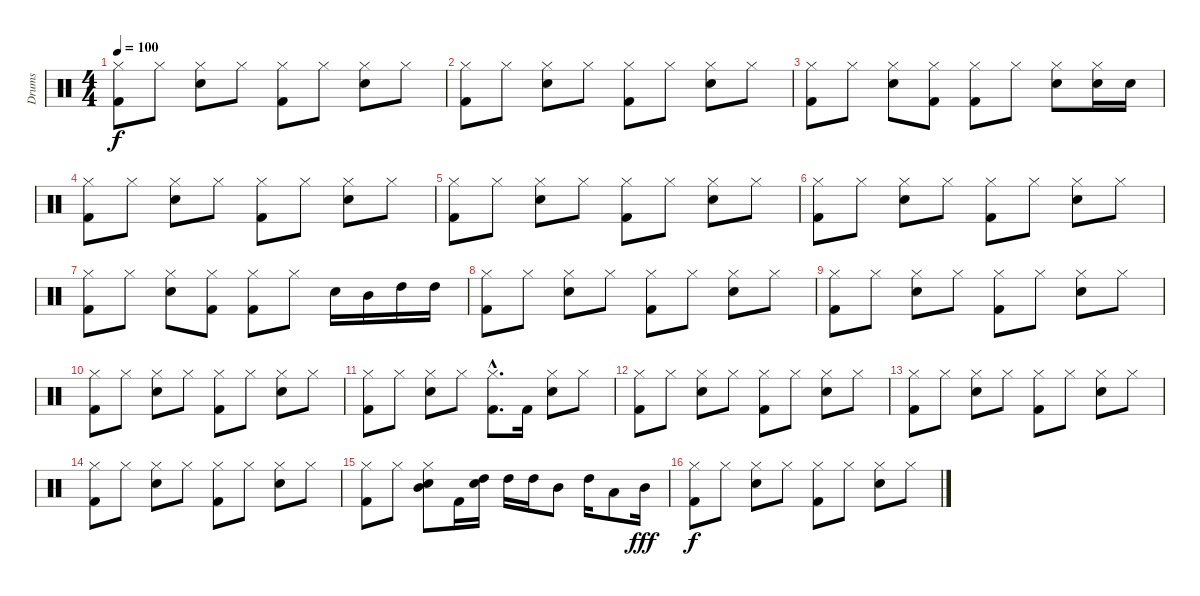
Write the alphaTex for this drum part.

\track ("Drums" "Drums") {instrument percussion}
\staff {score}
\articulation defaults
\ts (4 4)
\tempo 100
\clef neutral
\ks c
("Kick (hit) 2" "Hi-Hat (closed)").8{dy f} "Hi-Hat (closed)".8 ("Snare (hit) 2" "Hi-Hat (closed)").8 "Hi-Hat (closed)".8 ("Kick (hit) 2" "Hi-Hat (closed)").8 "Hi-Hat (closed)".8 ("Snare (hit) 2" "Hi-Hat (closed)").8 "Hi-Hat (closed)".8 |
("Kick (hit) 2" "Hi-Hat (closed)").8 "Hi-Hat (closed)".8 ("Snare (hit) 2" "Hi-Hat (closed)").8 "Hi-Hat (closed)".8 ("Kick (hit) 2" "Hi-Hat (closed)").8 "Hi-Hat (closed)".8 ("Snare (hit) 2" "Hi-Hat (closed)").8 "Hi-Hat (closed)".8 |
("Kick (hit) 2" "Hi-Hat (closed)").8 "Hi-Hat (closed)".8 ("Snare (hit) 2" "Hi-Hat (closed)").8 ("Kick (hit) 2" "Hi-Hat (closed)").8 ("Kick (hit) 2" "Hi-Hat (closed)").8 "Hi-Hat (closed)".8 ("Snare (hit) 2" "Hi-Hat (closed)").8 ("Snare (hit) 2" "Hi-Hat (closed)").16 "Snare (hit) 2".16 |
("Kick (hit) 2" "Hi-Hat (closed)").8 "Hi-Hat (closed)".8 ("Snare (hit) 2" "Hi-Hat (closed)").8 "Hi-Hat (closed)".8 ("Kick (hit) 2" "Hi-Hat (closed)").8 "Hi-Hat (closed)".8 ("Snare (hit) 2" "Hi-Hat (closed)").8 "Hi-Hat (closed)".8 |
("Kick (hit) 2" "Hi-Hat (closed)").8 "Hi-Hat (closed)".8 ("Snare (hit) 2" "Hi-Hat (closed)").8 "Hi-Hat (closed)".8 ("Kick (hit) 2" "Hi-Hat (closed)").8 "Hi-Hat (closed)".8 ("Snare (hit) 2" "Hi-Hat (closed)").8 "Hi-Hat (closed)".8 |
("Kick (hit) 2" "Hi-Hat (closed)").8 "Hi-Hat (closed)".8 ("Snare (hit) 2" "Hi-Hat (closed)").8 "Hi-Hat (closed)".8 ("Kick (hit) 2" "Hi-Hat (closed)").8 "Hi-Hat (closed)".8 ("Snare (hit) 2" "Hi-Hat (closed)").8 "Hi-Hat (closed)".8 |
("Kick (hit) 2" "Hi-Hat (closed)").8 "Hi-Hat (closed)".8 ("Snare (hit) 2" "Hi-Hat (closed)").8 ("Kick (hit) 2" "Hi-Hat (closed)").8 ("Kick (hit) 2" "Hi-Hat (closed)").8 "Hi-Hat (closed)".8 "Snare (hit) 2".16 "Mid Tom (hit)".16 "High Tom (hit)".16 "High Tom (hit)".16 |
("Kick (hit) 2" "Hi-Hat (closed)").8 "Hi-Hat (closed)".8 ("Snare (hit) 2" "Hi-Hat (closed)").8 "Hi-Hat (closed)".8 ("Kick (hit) 2" "Hi-Hat (closed)").8 "Hi-Hat (closed)".8 ("Snare (hit) 2" "Hi-Hat (closed)").8 "Hi-Hat (closed)".8 |
("Kick (hit) 2" "Hi-Hat (closed)").8 "Hi-Hat (closed)".8 ("Snare (hit) 2" "Hi-Hat (closed)").8 "Hi-Hat (closed)".8 ("Kick (hit) 2" "Hi-Hat (closed)").8 "Hi-Hat (closed)".8 ("Snare (hit) 2" "Hi-Hat (closed)").8 "Hi-Hat (closed)".8 |
("Kick (hit) 2" "Hi-Hat (closed)").8 "Hi-Hat (closed)".8 ("Snare (hit) 2" "Hi-Hat (closed)").8 "Hi-Hat (closed)".8 ("Kick (hit) 2" "Hi-Hat (closed)").8 "Hi-Hat (closed)".8 ("Snare (hit) 2" "Hi-Hat (closed)").8 "Hi-Hat (closed)".8 |
("Kick (hit) 2" "Hi-Hat (closed)").8 "Hi-Hat (closed)".8 ("Snare (hit) 2" "Hi-Hat (closed)").8 "Hi-Hat (closed)".8 ("Kick (hit) 2"{hac} "Hi-Hat (closed)"{hac}).8{d} "Kick (hit) 2".16 ("Snare (hit) 2" "Hi-Hat (closed)").8 "Hi-Hat (closed)".8 |
("Kick (hit) 2" "Hi-Hat (closed)").8 "Hi-Hat (closed)".8 ("Snare (hit) 2" "Hi-Hat (closed)").8 "Hi-Hat (closed)".8 ("Kick (hit) 2" "Hi-Hat (closed)").8 "Hi-Hat (closed)".8 ("Snare (hit) 2" "Hi-Hat (closed)").8 "Hi-Hat (closed)".8 |
("Kick (hit) 2" "Hi-Hat (closed)").8 "Hi-Hat (closed)".8 ("Snare (hit) 2" "Hi-Hat (closed)").8 "Hi-Hat (closed)".8 ("Kick (hit) 2" "Hi-Hat (closed)").8 "Hi-Hat (closed)".8 ("Snare (hit) 2" "Hi-Hat (closed)").8 "Hi-Hat (closed)".8 |
("Kick (hit) 2" "Hi-Hat (closed)").8 "Hi-Hat (closed)".8 ("Snare (hit) 2" "Hi-Hat (closed)").8 "Hi-Hat (closed)".8 ("Kick (hit) 2" "Hi-Hat (closed)").8 "Hi-Hat (closed)".8 ("Snare (hit) 2" "Hi-Hat (closed)").8 "Hi-Hat (closed)".8 |
("Kick (hit) 2" "Hi-Hat (closed)").8 "Hi-Hat (closed)".8 ("Snare (hit) 2" "Mid Tom (hit)" "Hi-Hat (closed)").8 "Kick (hit) 2".16 ("Snare (hit) 2" "High Tom (hit)").16 "High Tom (hit)".16 "High Tom (hit)".16 "Mid Tom (hit)".8 "High Tom (hit)".16 "Low Tom (hit)".8 "Mid Tom (hit)".16{dy fff} |
("Kick (hit) 2" "Hi-Hat (closed)").8{dy f} "Hi-Hat (closed)".8 ("Snare (hit) 2" "Hi-Hat (closed)").8 "Hi-Hat (closed)".8 ("Kick (hit) 2" "Hi-Hat (closed)").8 "Hi-Hat (closed)".8 ("Snare (hit) 2" "Hi-Hat (closed)").8 "Hi-Hat (closed)".8
